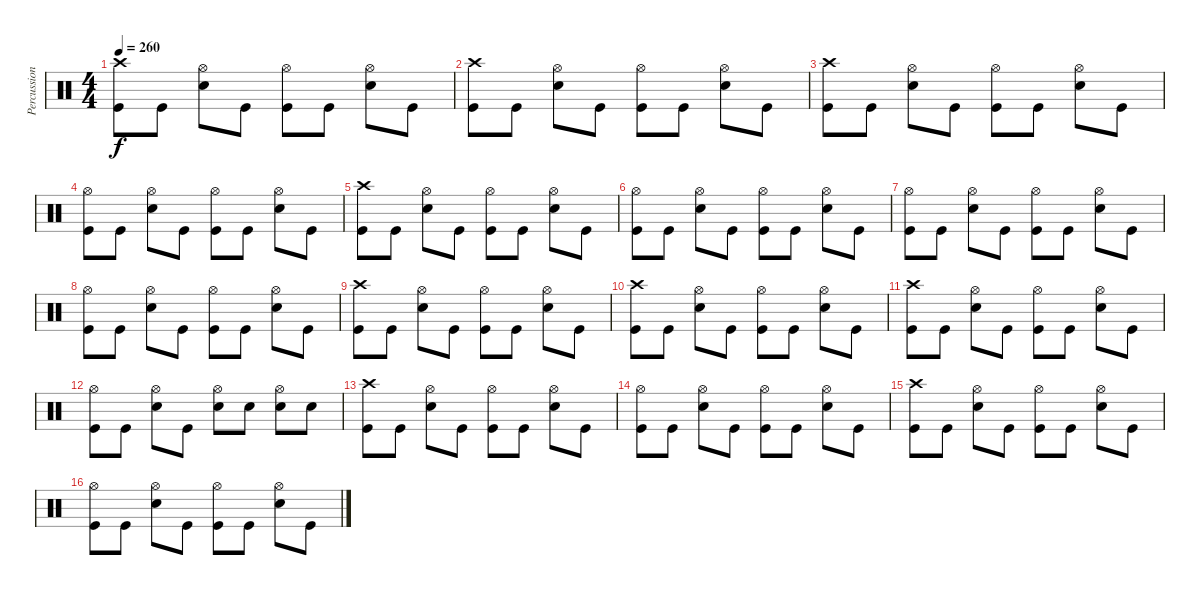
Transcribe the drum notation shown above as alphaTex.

\track ("Percussion" "Percussion") {instrument percussion}
\staff {score}
\articulation defaults
\ts (4 4)
\tempo 260
\clef neutral
\ks c
("Crash high (hit)" "Kick (hit)").8{dy f} "Kick (hit)".8 ("Hi-Hat (open)" "Snare (hit) 2").8 "Kick (hit)".8 ("Hi-Hat (open)" "Kick (hit)").8 "Kick (hit)".8 ("Hi-Hat (open)" "Snare (hit) 2").8 "Kick (hit)".8 |
("Crash high (hit)" "Kick (hit)").8 "Kick (hit)".8 ("Hi-Hat (open)" "Snare (hit) 2").8 "Kick (hit)".8 ("Hi-Hat (open)" "Kick (hit)").8 "Kick (hit)".8 ("Hi-Hat (open)" "Snare (hit) 2").8 "Kick (hit)".8 |
("Crash high (hit)" "Kick (hit)").8 "Kick (hit)".8 ("Hi-Hat (open)" "Snare (hit) 2").8 "Kick (hit)".8 ("Hi-Hat (open)" "Kick (hit)").8 "Kick (hit)".8 ("Hi-Hat (open)" "Snare (hit) 2").8 "Kick (hit)".8 |
("Hi-Hat (open)" "Kick (hit)").8 "Kick (hit)".8 ("Hi-Hat (open)" "Snare (hit) 2").8 "Kick (hit)".8 ("Hi-Hat (open)" "Kick (hit)").8 "Kick (hit)".8 ("Hi-Hat (open)" "Snare (hit) 2").8 "Kick (hit)".8 |
("Crash high (hit)" "Kick (hit)").8 "Kick (hit)".8 ("Hi-Hat (open)" "Snare (hit) 2").8 "Kick (hit)".8 ("Hi-Hat (open)" "Kick (hit)").8 "Kick (hit)".8 ("Hi-Hat (open)" "Snare (hit) 2").8 "Kick (hit)".8 |
("Hi-Hat (open)" "Kick (hit)").8 "Kick (hit)".8 ("Hi-Hat (open)" "Snare (hit) 2").8 "Kick (hit)".8 ("Hi-Hat (open)" "Kick (hit)").8 "Kick (hit)".8 ("Hi-Hat (open)" "Snare (hit) 2").8 "Kick (hit)".8 |
("Hi-Hat (open)" "Kick (hit)").8 "Kick (hit)".8 ("Hi-Hat (open)" "Snare (hit) 2").8 "Kick (hit)".8 ("Hi-Hat (open)" "Kick (hit)").8 "Kick (hit)".8 ("Hi-Hat (open)" "Snare (hit) 2").8 "Kick (hit)".8 |
("Hi-Hat (open)" "Kick (hit)").8 "Kick (hit)".8 ("Hi-Hat (open)" "Snare (hit) 2").8 "Kick (hit)".8 ("Hi-Hat (open)" "Kick (hit)").8 "Kick (hit)".8 ("Hi-Hat (open)" "Snare (hit) 2").8 "Kick (hit)".8 |
("Crash high (hit)" "Kick (hit)").8 "Kick (hit)".8 ("Hi-Hat (open)" "Snare (hit) 2").8 "Kick (hit)".8 ("Hi-Hat (open)" "Kick (hit)").8 "Kick (hit)".8 ("Hi-Hat (open)" "Snare (hit) 2").8 "Kick (hit)".8 |
("Crash high (hit)" "Kick (hit)").8 "Kick (hit)".8 ("Hi-Hat (open)" "Snare (hit) 2").8 "Kick (hit)".8 ("Hi-Hat (open)" "Kick (hit)").8 "Kick (hit)".8 ("Hi-Hat (open)" "Snare (hit) 2").8 "Kick (hit)".8 |
("Crash high (hit)" "Kick (hit)").8 "Kick (hit)".8 ("Hi-Hat (open)" "Snare (hit) 2").8 "Kick (hit)".8 ("Hi-Hat (open)" "Kick (hit)").8 "Kick (hit)".8 ("Hi-Hat (open)" "Snare (hit) 2").8 "Kick (hit)".8 |
("Hi-Hat (open)" "Kick (hit)").8 "Kick (hit)".8 ("Hi-Hat (open)" "Snare (hit) 2").8 "Kick (hit)".8 ("Hi-Hat (open)" "Snare (hit) 2").8 "Snare (hit) 2".8 ("Hi-Hat (open)" "Snare (hit) 2").8 "Snare (hit) 2".8 |
("Crash high (hit)" "Kick (hit)").8 "Kick (hit)".8 ("Hi-Hat (open)" "Snare (hit) 2").8 "Kick (hit)".8 ("Hi-Hat (open)" "Kick (hit)").8 "Kick (hit)".8 ("Hi-Hat (open)" "Snare (hit) 2").8 "Kick (hit)".8 |
("Hi-Hat (open)" "Kick (hit)").8 "Kick (hit)".8 ("Hi-Hat (open)" "Snare (hit) 2").8 "Kick (hit)".8 ("Hi-Hat (open)" "Kick (hit)").8 "Kick (hit)".8 ("Hi-Hat (open)" "Snare (hit) 2").8 "Kick (hit)".8 |
("Crash high (hit)" "Kick (hit)").8 "Kick (hit)".8 ("Hi-Hat (open)" "Snare (hit) 2").8 "Kick (hit)".8 ("Hi-Hat (open)" "Kick (hit)").8 "Kick (hit)".8 ("Hi-Hat (open)" "Snare (hit) 2").8 "Kick (hit)".8 |
("Hi-Hat (open)" "Kick (hit)").8 "Kick (hit)".8 ("Hi-Hat (open)" "Snare (hit) 2").8 "Kick (hit)".8 ("Hi-Hat (open)" "Kick (hit)").8 "Kick (hit)".8 ("Hi-Hat (open)" "Snare (hit) 2").8 "Kick (hit)".8
